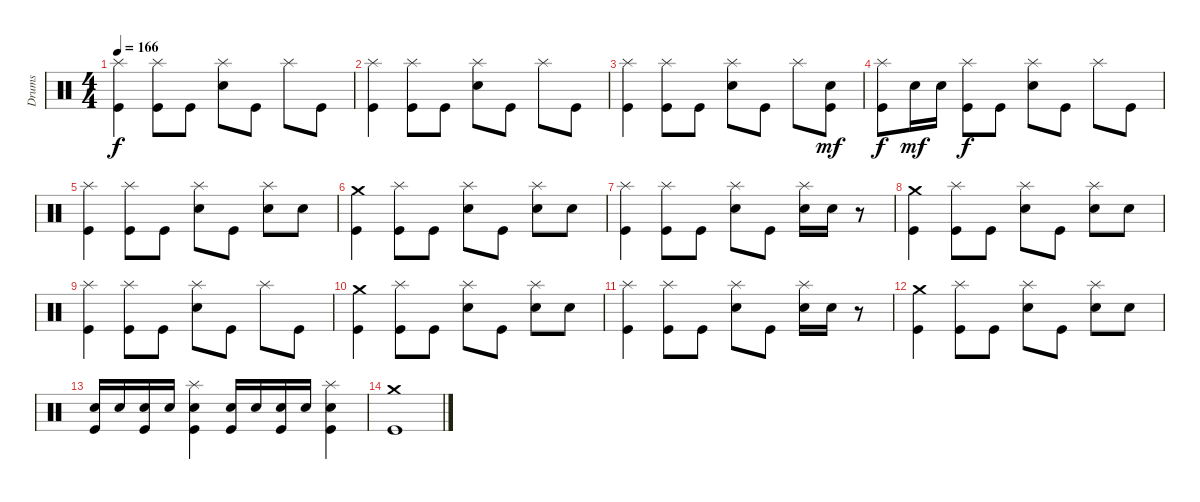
\track ("Drums" "Drums") {instrument percussion}
\staff {score}
\articulation defaults
\ts (4 4)
\tempo 166
\clef neutral
\ks c
("Splash (hit)" "Kick (hit)").4{dy f} ("Splash (hit)" "Kick (hit)").8 "Kick (hit)".8 ("Splash (hit)" "Electric Snare (hit)").8 "Kick (hit)".8 "Splash (hit)".8 "Kick (hit)".8 |
("Splash (hit)" "Kick (hit)").4 ("Splash (hit)" "Kick (hit)").8 "Kick (hit)".8 ("Splash (hit)" "Electric Snare (hit)").8 "Kick (hit)".8 "Splash (hit)".8 "Kick (hit)".8 |
("Splash (hit)" "Kick (hit)").4 ("Splash (hit)" "Kick (hit)").8 "Kick (hit)".8 ("Splash (hit)" "Electric Snare (hit)").8 "Kick (hit)".8 "Splash (hit)".8 ("Electric Snare (hit)" "Kick (hit)").8{dy mf} |
("Splash (hit)" "Kick (hit)").8{dy f} "Electric Snare (hit)".16{dy mf} "Electric Snare (hit)".16 ("Splash (hit)" "Kick (hit)").8{dy f} "Kick (hit)".8 ("Splash (hit)" "Electric Snare (hit)").8 "Kick (hit)".8 "Splash (hit)".8 "Kick (hit)".8 |
("Splash (hit)" "Kick (hit)").4 ("Splash (hit)" "Kick (hit)").8 "Kick (hit)".8 ("Splash (hit)" "Electric Snare (hit)").8 "Kick (hit)".8 ("Splash (hit)" "Electric Snare (hit)").8 "Electric Snare (hit)".8 |
("Crash medium (hit)" "Kick (hit)").4 ("Splash (hit)" "Kick (hit)").8 "Kick (hit)".8 ("Splash (hit)" "Electric Snare (hit)").8 "Kick (hit)".8 ("Splash (hit)" "Electric Snare (hit)").8 "Electric Snare (hit)".8 |
("Splash (hit)" "Kick (hit)").4 ("Splash (hit)" "Kick (hit)").8 "Kick (hit)".8 ("Splash (hit)" "Electric Snare (hit)").8 "Kick (hit)".8 ("Splash (hit)" "Electric Snare (hit)").16 "Electric Snare (hit)".16 r.8 |
("Crash medium (hit)" "Kick (hit)").4 ("Splash (hit)" "Kick (hit)").8 "Kick (hit)".8 ("Splash (hit)" "Electric Snare (hit)").8 "Kick (hit)".8 ("Splash (hit)" "Electric Snare (hit)").8 "Electric Snare (hit)".8 |
("Splash (hit)" "Kick (hit)").4 ("Splash (hit)" "Kick (hit)").8 "Kick (hit)".8 ("Splash (hit)" "Electric Snare (hit)").8 "Kick (hit)".8 "Splash (hit)".8 "Kick (hit)".8 |
("Crash medium (hit)" "Kick (hit)").4 ("Splash (hit)" "Kick (hit)").8 "Kick (hit)".8 ("Splash (hit)" "Electric Snare (hit)").8 "Kick (hit)".8 ("Splash (hit)" "Electric Snare (hit)").8 "Electric Snare (hit)".8 |
("Splash (hit)" "Kick (hit)").4 ("Splash (hit)" "Kick (hit)").8 "Kick (hit)".8 ("Splash (hit)" "Electric Snare (hit)").8 "Kick (hit)".8 ("Splash (hit)" "Electric Snare (hit)").16 "Electric Snare (hit)".16 r.8 |
("Crash medium (hit)" "Kick (hit)").4 ("Splash (hit)" "Kick (hit)").8 "Kick (hit)".8 ("Splash (hit)" "Electric Snare (hit)").8 "Kick (hit)".8 ("Splash (hit)" "Electric Snare (hit)").8 "Electric Snare (hit)".8 |
("Electric Snare (hit)" "Kick (hit)").16 "Electric Snare (hit)".16 ("Electric Snare (hit)" "Kick (hit)").16 "Electric Snare (hit)".16 ("Splash (hit)" "Electric Snare (hit)" "Kick (hit)").4 ("Electric Snare (hit)" "Kick (hit)").16 "Electric Snare (hit)".16 ("Electric Snare (hit)" "Kick (hit)").16 "Electric Snare (hit)".16 ("Splash (hit)" "Electric Snare (hit)" "Kick (hit)").4 |
("Crash medium (hit)" "Kick (hit)").1
